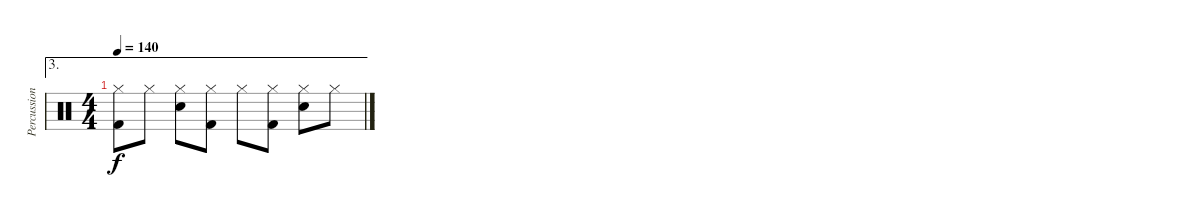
\track ("Percussions" "Percussion") {instrument percussion}
\staff {score}
\articulation defaults
\ae 3
\ts (4 4)
\tempo 140
\clef neutral
\ks c
("Hi-Hat (closed)" "Kick (hit) 2").8{dy f} "Hi-Hat (closed)".8 ("Hi-Hat (closed)" "Electric Snare (hit)").8 ("Hi-Hat (closed)" "Kick (hit) 2").8 "Hi-Hat (closed)".8 ("Hi-Hat (closed)" "Kick (hit) 2").8 ("Hi-Hat (closed)" "Electric Snare (hit)").8 "Hi-Hat (closed)".8
